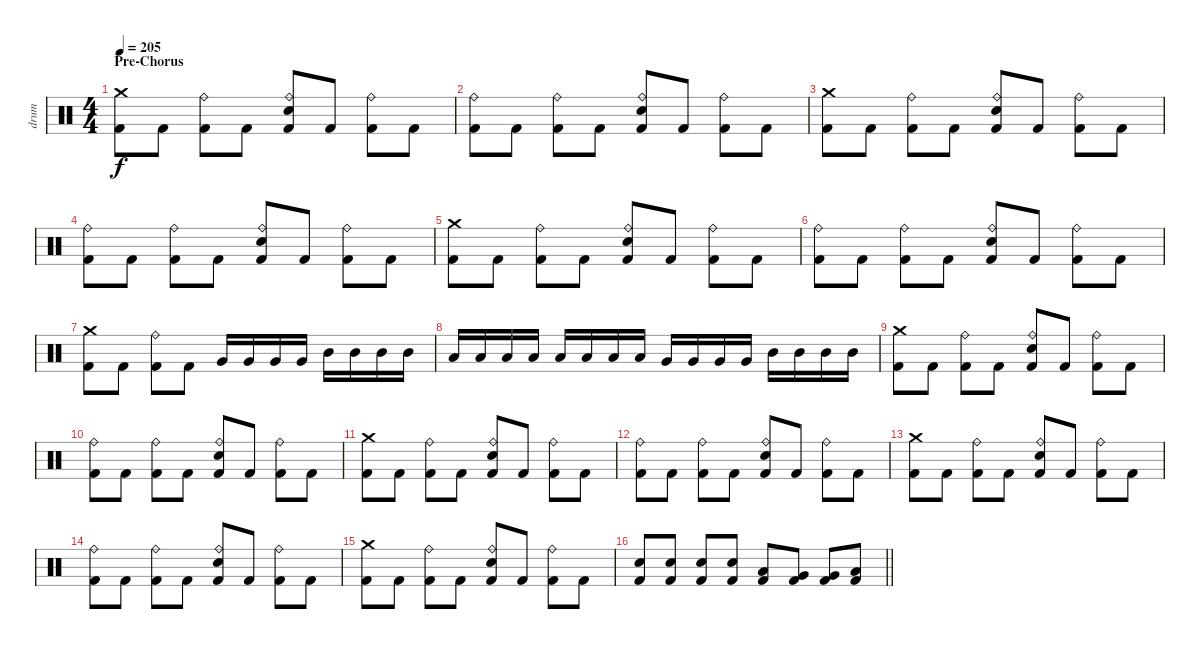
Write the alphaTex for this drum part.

\track ("drum" "drum") {instrument percussion}
\staff {score}
\articulation defaults
\ts (4 4)
\section ("" "Pre-Chorus")
\tempo 205
\clef neutral
\ks c
("Crash medium (hit)" "Kick (hit) 2").8{dy f} "Kick (hit) 2".8 ("Ride (bell)" "Kick (hit) 2").8 "Kick (hit) 2".8 ("Ride (bell)" "Electric Snare (hit)" "Kick (hit) 2").8 "Kick (hit) 2".8 ("Ride (bell)" "Kick (hit) 2").8 "Kick (hit) 2".8 |
("Ride (bell)" "Kick (hit) 2").8 "Kick (hit) 2".8 ("Ride (bell)" "Kick (hit) 2").8 "Kick (hit) 2".8 ("Ride (bell)" "Electric Snare (hit)" "Kick (hit) 2").8 "Kick (hit) 2".8 ("Ride (bell)" "Kick (hit) 2").8 "Kick (hit) 2".8 |
("Crash medium (hit)" "Kick (hit) 2").8 "Kick (hit) 2".8 ("Ride (bell)" "Kick (hit) 2").8 "Kick (hit) 2".8 ("Ride (bell)" "Electric Snare (hit)" "Kick (hit) 2").8 "Kick (hit) 2".8 ("Ride (bell)" "Kick (hit) 2").8 "Kick (hit) 2".8 |
("Ride (bell)" "Kick (hit) 2").8 "Kick (hit) 2".8 ("Ride (bell)" "Kick (hit) 2").8 "Kick (hit) 2".8 ("Ride (bell)" "Electric Snare (hit)" "Kick (hit) 2").8 "Kick (hit) 2".8 ("Ride (bell)" "Kick (hit) 2").8 "Kick (hit) 2".8 |
("Crash medium (hit)" "Kick (hit) 2").8 "Kick (hit) 2".8 ("Ride (bell)" "Kick (hit) 2").8 "Kick (hit) 2".8 ("Ride (bell)" "Electric Snare (hit)" "Kick (hit) 2").8 "Kick (hit) 2".8 ("Ride (bell)" "Kick (hit) 2").8 "Kick (hit) 2".8 |
("Ride (bell)" "Kick (hit) 2").8 "Kick (hit) 2".8 ("Ride (bell)" "Kick (hit) 2").8 "Kick (hit) 2".8 ("Ride (bell)" "Electric Snare (hit)" "Kick (hit) 2").8 "Kick (hit) 2".8 ("Ride (bell)" "Kick (hit) 2").8 "Kick (hit) 2".8 |
("Crash medium (hit)" "Kick (hit) 2").8 "Kick (hit) 2".8 ("Ride (bell)" "Kick (hit) 2").8 "Kick (hit) 2".8 "Very Low Tom (hit)".16 "Very Low Tom (hit)".16 "Very Low Tom (hit)".16 "Very Low Tom (hit)".16 "Mid Tom (hit)".16 "Mid Tom (hit)".16 "Mid Tom (hit)".16 "Mid Tom (hit)".16 |
"Low Tom (hit)".16 "Low Tom (hit)".16 "Low Tom (hit)".16 "Low Tom (hit)".16 "Low Floor Tom (hit)".16 "Low Floor Tom (hit)".16 "Low Floor Tom (hit)".16 "Low Floor Tom (hit)".16 "Very Low Tom (hit)".16 "Very Low Tom (hit)".16 "Very Low Tom (hit)".16 "Very Low Tom (hit)".16 "Mid Tom (hit)".16 "Mid Tom (hit)".16 "Mid Tom (hit)".16 "Mid Tom (hit)".16 |
("Crash medium (hit)" "Kick (hit) 2").8 "Kick (hit) 2".8 ("Ride (bell)" "Kick (hit) 2").8 "Kick (hit) 2".8 ("Ride (bell)" "Electric Snare (hit)" "Kick (hit) 2").8 "Kick (hit) 2".8 ("Ride (bell)" "Kick (hit) 2").8 "Kick (hit) 2".8 |
("Ride (bell)" "Kick (hit) 2").8 "Kick (hit) 2".8 ("Ride (bell)" "Kick (hit) 2").8 "Kick (hit) 2".8 ("Ride (bell)" "Electric Snare (hit)" "Kick (hit) 2").8 "Kick (hit) 2".8 ("Ride (bell)" "Kick (hit) 2").8 "Kick (hit) 2".8 |
("Crash medium (hit)" "Kick (hit) 2").8 "Kick (hit) 2".8 ("Ride (bell)" "Kick (hit) 2").8 "Kick (hit) 2".8 ("Ride (bell)" "Electric Snare (hit)" "Kick (hit) 2").8 "Kick (hit) 2".8 ("Ride (bell)" "Kick (hit) 2").8 "Kick (hit) 2".8 |
("Ride (bell)" "Kick (hit) 2").8 "Kick (hit) 2".8 ("Ride (bell)" "Kick (hit) 2").8 "Kick (hit) 2".8 ("Ride (bell)" "Electric Snare (hit)" "Kick (hit) 2").8 "Kick (hit) 2".8 ("Ride (bell)" "Kick (hit) 2").8 "Kick (hit) 2".8 |
("Crash medium (hit)" "Kick (hit) 2").8 "Kick (hit) 2".8 ("Ride (bell)" "Kick (hit) 2").8 "Kick (hit) 2".8 ("Ride (bell)" "Electric Snare (hit)" "Kick (hit) 2").8 "Kick (hit) 2".8 ("Ride (bell)" "Kick (hit) 2").8 "Kick (hit) 2".8 |
("Ride (bell)" "Kick (hit) 2").8 "Kick (hit) 2".8 ("Ride (bell)" "Kick (hit) 2").8 "Kick (hit) 2".8 ("Ride (bell)" "Electric Snare (hit)" "Kick (hit) 2").8 "Kick (hit) 2".8 ("Ride (bell)" "Kick (hit) 2").8 "Kick (hit) 2".8 |
("Crash medium (hit)" "Kick (hit) 2").8 "Kick (hit) 2".8 ("Ride (bell)" "Kick (hit) 2").8 "Kick (hit) 2".8 ("Ride (bell)" "Electric Snare (hit)" "Kick (hit) 2").8 "Kick (hit) 2".8 ("Ride (bell)" "Kick (hit) 2").8 "Kick (hit) 2".8 |
\barLineRight lightlight
("Electric Snare (hit)" "Kick (hit) 2").8 ("Electric Snare (hit)" "Kick (hit) 2").8 ("Electric Snare (hit)" "Kick (hit) 2").8 ("Electric Snare (hit)" "Kick (hit) 2").8 ("Low Tom (hit)" "Kick (hit) 2").8 ("Very Low Tom (hit)" "Kick (hit) 2").8 ("Very Low Tom (hit)" "Kick (hit) 2").8 ("Low Floor Tom (hit)" "Kick (hit) 2").8
